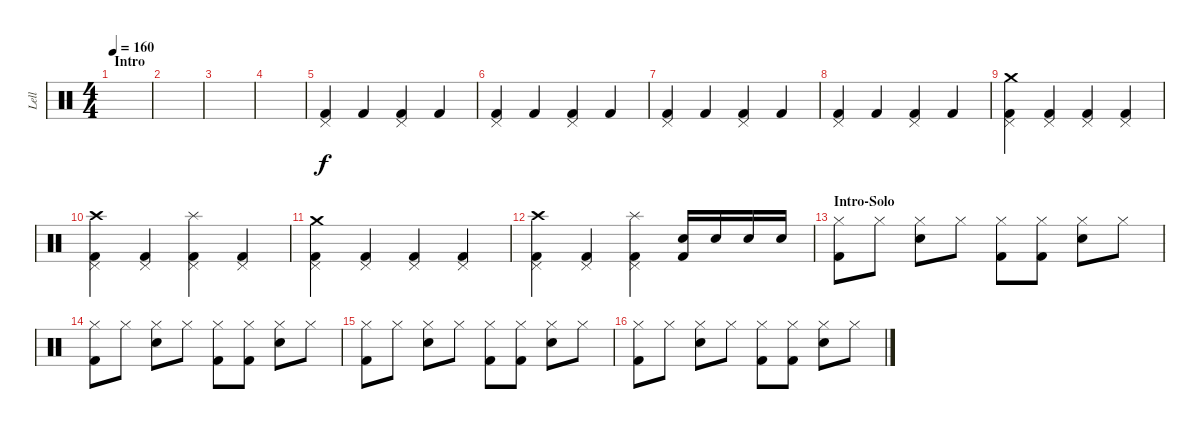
\track ("Lell" "Lell") {instrument percussion}
\staff {score}
\articulation defaults
\ts (4 4)
\section ("" "Intro")
\tempo 160
\clef neutral
\ks c
|
|
|
|
("Pedal Hi-Hat (hit)" "Kick (hit) 2").4 "Kick (hit) 2".4 ("Pedal Hi-Hat (hit)" "Kick (hit) 2").4 "Kick (hit) 2".4 |
("Pedal Hi-Hat (hit)" "Kick (hit) 2").4 "Kick (hit) 2".4 ("Pedal Hi-Hat (hit)" "Kick (hit) 2").4 "Kick (hit) 2".4 |
("Pedal Hi-Hat (hit)" "Kick (hit) 2").4 "Kick (hit) 2".4 ("Pedal Hi-Hat (hit)" "Kick (hit) 2").4 "Kick (hit) 2".4 |
("Pedal Hi-Hat (hit)" "Kick (hit) 2").4 "Kick (hit) 2".4 ("Pedal Hi-Hat (hit)" "Kick (hit) 2").4 "Kick (hit) 2".4 |
("Crash medium (hit)" "Pedal Hi-Hat (hit)" "Kick (hit) 2").4 ("Pedal Hi-Hat (hit)" "Kick (hit) 2").4 ("Pedal Hi-Hat (hit)" "Kick (hit) 2").4 ("Pedal Hi-Hat (hit)" "Kick (hit) 2").4 |
("Crash high (hit)" "Pedal Hi-Hat (hit)" "Kick (hit) 2").4 ("Pedal Hi-Hat (hit)" "Kick (hit) 2").4 ("Splash (hit)" "Pedal Hi-Hat (hit)" "Kick (hit) 2").4 ("Pedal Hi-Hat (hit)" "Kick (hit) 2").4 |
("Crash medium (hit)" "Pedal Hi-Hat (hit)" "Kick (hit) 2").4 ("Pedal Hi-Hat (hit)" "Kick (hit) 2").4 ("Pedal Hi-Hat (hit)" "Kick (hit) 2").4 ("Pedal Hi-Hat (hit)" "Kick (hit) 2").4 |
("Crash high (hit)" "Pedal Hi-Hat (hit)" "Kick (hit) 2").4 ("Pedal Hi-Hat (hit)" "Kick (hit) 2").4 ("Splash (hit)" "Pedal Hi-Hat (hit)" "Kick (hit) 2").4 ("Snare (hit) 2" "Kick (hit) 2").16 "Snare (hit) 2".16 "Snare (hit) 2".16 "Snare (hit) 2".16 |
\section ("" "Intro-Solo")
("Hi-Hat (closed)" "Kick (hit) 2").8 "Hi-Hat (closed)".8 ("Hi-Hat (closed)" "Snare (hit) 2").8 "Hi-Hat (closed)".8 ("Hi-Hat (closed)" "Kick (hit) 2").8 ("Hi-Hat (closed)" "Kick (hit) 2").8 ("Hi-Hat (closed)" "Snare (hit) 2").8 "Hi-Hat (closed)".8 |
("Hi-Hat (closed)" "Kick (hit) 2").8 "Hi-Hat (closed)".8 ("Hi-Hat (closed)" "Snare (hit) 2").8 "Hi-Hat (closed)".8 ("Hi-Hat (closed)" "Kick (hit) 2").8 ("Hi-Hat (closed)" "Kick (hit) 2").8 ("Hi-Hat (closed)" "Snare (hit) 2").8 "Hi-Hat (closed)".8 |
("Hi-Hat (closed)" "Kick (hit) 2").8 "Hi-Hat (closed)".8 ("Hi-Hat (closed)" "Snare (hit) 2").8 "Hi-Hat (closed)".8 ("Hi-Hat (closed)" "Kick (hit) 2").8 ("Hi-Hat (closed)" "Kick (hit) 2").8 ("Hi-Hat (closed)" "Snare (hit) 2").8 "Hi-Hat (closed)".8 |
("Hi-Hat (closed)" "Kick (hit) 2").8 "Hi-Hat (closed)".8 ("Hi-Hat (closed)" "Snare (hit) 2").8 "Hi-Hat (closed)".8 ("Hi-Hat (closed)" "Kick (hit) 2").8 ("Hi-Hat (closed)" "Kick (hit) 2").8 ("Hi-Hat (closed)" "Snare (hit) 2").8 "Hi-Hat (closed)".8
